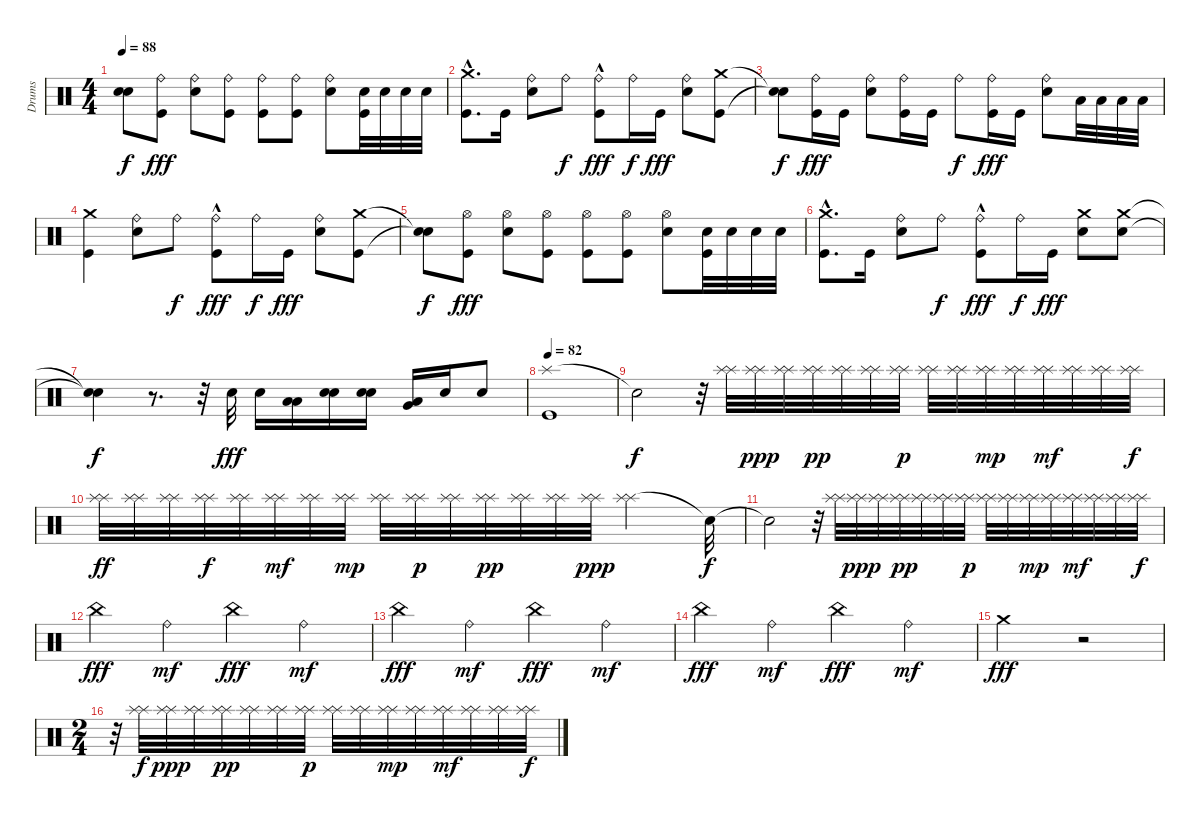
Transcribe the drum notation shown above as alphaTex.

\track ("Drums" "Drums") {instrument percussion}
\staff {score}
\articulation defaults
\ts (4 4)
\tempo 88
\clef neutral
\ks c
("Snare (hit)"{t} "Snare (hit)"{t}).8{dy f} ("Ride (bell)" "Kick (hit)").8{dy fff} ("Ride (bell)" "Electric Snare (hit)").8 ("Kick (hit)" "Ride (bell)").8 ("Ride (bell)" "Kick (hit)").8 ("Ride (bell)" "Kick (hit)").8 ("Ride (bell)" "Electric Snare (hit)").8 ("Kick (hit)" "Electric Snare (hit)").32 "Electric Snare (hit)".32 "Electric Snare (hit)".32 "Electric Snare (hit)".32 |
("Crash medium (hit)" "Kick (hit)"{hac}).8{d} "Kick (hit)".16 ("Electric Snare (hit)" "Ride (bell)").8 "Ride (bell)".8{dy f} ("Kick (hit)"{hac} "Ride (bell)").8{dy fff} "Ride (bell)".16{dy f} "Kick (hit)".16{dy fff} ("Electric Snare (hit)" "Ride (bell)").8 ("Kick (hit)" "Crash medium (hit)").8 |
("Snare (hit)"{t} "Snare (hit)"{t}).8{dy f} ("Kick (hit)" "Ride (bell)").16{dy fff} "Kick (hit)".16 ("Ride (bell)" "Electric Snare (hit)").8 ("Kick (hit)" "Ride (bell)").16 "Kick (hit)".16 "Ride (bell)".8{dy f} ("Ride (bell)" "Kick (hit)").16{dy fff} "Kick (hit)".16 ("Electric Snare (hit)" "Ride (bell)").8 "Low Floor Tom (hit)".32 "Low Floor Tom (hit)".32 "Low Floor Tom (hit)".32 "Low Floor Tom (hit)".32 |
("Kick (hit)" "Crash medium (hit)").4 ("Electric Snare (hit)" "Ride (bell)").8 "Ride (bell)".8{dy f} ("Ride (bell)" "Kick (hit)"{hac}).8{dy fff} "Ride (bell)".16{dy f} "Kick (hit)".16{dy fff} ("Ride (bell)" "Electric Snare (hit)").8 ("Crash medium (hit)" "Kick (hit)").8 |
("Snare (hit)"{t} "Snare (hit)"{t}).8{dy f} ("Hi-Hat (open)" "Kick (hit)").8{dy fff} ("Hi-Hat (open)" "Electric Snare (hit)").8 ("Kick (hit)" "Hi-Hat (open)").8 ("Hi-Hat (open)" "Kick (hit)").8 ("Hi-Hat (open)" "Kick (hit)").8 ("Electric Snare (hit)" "Hi-Hat (open)").8 ("Kick (hit)" "Electric Snare (hit)").32 "Electric Snare (hit)".32 "Electric Snare (hit)".32 "Electric Snare (hit)".32 |
("Kick (hit)"{hac} "Crash medium (hit)").8{d} "Kick (hit)".16 ("Electric Snare (hit)" "Ride (bell)").8 "Ride (bell)".8{dy f} ("Ride (bell)" "Kick (hit)"{hac}).8{dy fff} "Ride (bell)".16{dy f} "Kick (hit)".16{dy fff} ("Crash medium (hit)" "Electric Snare (hit)").8 ("Crash medium (hit)" "Electric Snare (hit)").8 |
("Snare (hit)"{t} "Snare (hit)"{t}).4{dy f} r.8{d} r.32 "Electric Snare (hit)".32{dy fff} "Electric Snare (hit)".16 ("Low Floor Tom (hit)" "Low Floor Tom (hit)").16 ("Electric Snare (hit)" "Electric Snare (hit)").16 ("Electric Snare (hit)" "Electric Snare (hit)").16 ("Very Low Tom (hit)" "Low Floor Tom (hit)").16 "Electric Snare (hit)".16 "Electric Snare (hit)".8 |
\tempo 82
("Splash (hit)" "Kick (hit)").1 |
"Snare (hit)"{t}.2{dy f} r.32 ("Splash (hit)" "Splash (hit)").32 ("Splash (hit)" "Splash (hit)").32{dy ppp} ("Splash (hit)" "Splash (hit)").32 ("Splash (hit)" "Splash (hit)").32{dy pp} ("Splash (hit)" "Splash (hit)").32 ("Splash (hit)" "Splash (hit)").32 ("Splash (hit)" "Splash (hit)").32{dy p} ("Splash (hit)" "Splash (hit)").32 ("Splash (hit)" "Splash (hit)").32 ("Splash (hit)" "Splash (hit)").32{dy mp} ("Splash (hit)" "Splash (hit)").32 ("Splash (hit)" "Splash (hit)").32{dy mf} ("Splash (hit)" "Splash (hit)").32 ("Splash (hit)" "Splash (hit)").32 ("Splash (hit)" "Splash (hit)").32{dy f} |
("Splash (hit)" "Splash (hit)").32{dy ff} ("Splash (hit)" "Splash (hit)").32 ("Splash (hit)" "Splash (hit)").32 ("Splash (hit)" "Splash (hit)").32{dy f} ("Splash (hit)" "Splash (hit)").32 ("Splash (hit)" "Splash (hit)").32{dy mf} ("Splash (hit)" "Splash (hit)").32 ("Splash (hit)" "Splash (hit)").32{dy mp} ("Splash (hit)" "Splash (hit)").32 ("Splash (hit)" "Splash (hit)").32{dy p} ("Splash (hit)" "Splash (hit)").32 ("Splash (hit)" "Splash (hit)").32{dy pp} ("Splash (hit)" "Splash (hit)").32 ("Splash (hit)" "Splash (hit)").32 ("Splash (hit)" "Splash (hit)").32{dy ppp} ("Splash (hit)" "Splash (hit)").2 "Snare (hit)"{t}.32{dy f} |
"Snare (hit)"{t}.2 r.32 ("Splash (hit)" "Splash (hit)").32 ("Splash (hit)" "Splash (hit)").32{dy ppp} ("Splash (hit)" "Splash (hit)").32 ("Splash (hit)" "Splash (hit)").32{dy pp} ("Splash (hit)" "Splash (hit)").32 ("Splash (hit)" "Splash (hit)").32 ("Splash (hit)" "Splash (hit)").32{dy p} ("Splash (hit)" "Splash (hit)").32 ("Splash (hit)" "Splash (hit)").32 ("Splash (hit)" "Splash (hit)").32{dy mp} ("Splash (hit)" "Splash (hit)").32 ("Splash (hit)" "Splash (hit)").32{dy mf} ("Splash (hit)" "Splash (hit)").32 ("Splash (hit)" "Splash (hit)").32 ("Splash (hit)" "Splash (hit)").32{dy f} |
"China (hit)".4{dy fff} "Ride (bell)".4{dy mf} "China (hit)".4{dy fff} "Ride (bell)".4{dy mf} |
"China (hit)".4{dy fff} "Ride (bell)".4{dy mf} "China (hit)".4{dy fff} "Ride (bell)".4{dy mf} |
"China (hit)".4{dy fff} "Ride (bell)".4{dy mf} "China (hit)".4{dy fff} "Ride (bell)".4{dy mf} |
"Crash medium (hit)".2{dy fff} r.2 |
\ts (2 4)
r.32 ("Splash (hit)" "Splash (hit)").32{dy f} ("Splash (hit)" "Splash (hit)").32{dy ppp} ("Splash (hit)" "Splash (hit)").32 ("Splash (hit)" "Splash (hit)").32{dy pp} ("Splash (hit)" "Splash (hit)").32 ("Splash (hit)" "Splash (hit)").32 ("Splash (hit)" "Splash (hit)").32{dy p} ("Splash (hit)" "Splash (hit)").32 ("Splash (hit)" "Splash (hit)").32 ("Splash (hit)" "Splash (hit)").32{dy mp} ("Splash (hit)" "Splash (hit)").32 ("Splash (hit)" "Splash (hit)").32{dy mf} ("Splash (hit)" "Splash (hit)").32 ("Splash (hit)" "Splash (hit)").32 ("Splash (hit)" "Splash (hit)").32{dy f}
